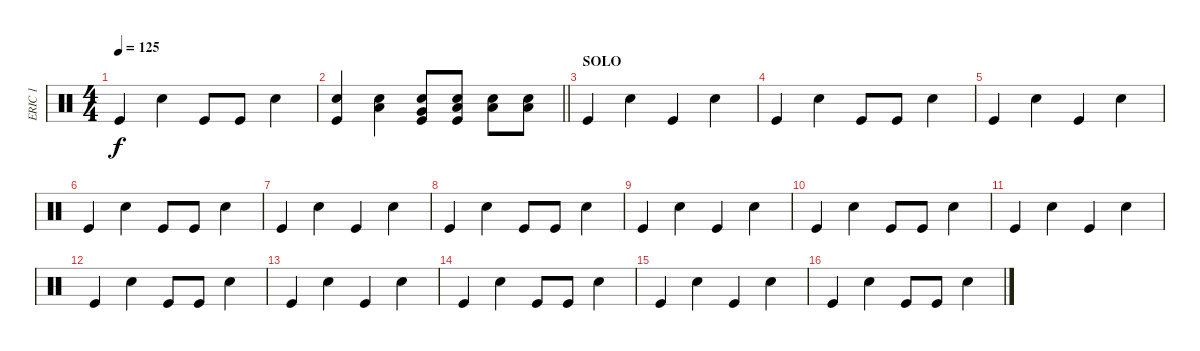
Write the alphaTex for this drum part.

\track ("ERIC 1" "ERIC 1") {instrument percussion}
\staff {score}
\articulation defaults
\ts (4 4)
\tempo 125
\clef neutral
\ks c "Kick (hit)".4{dy f} "Electric Snare (hit)".4 "Kick (hit)".8 "Kick (hit)".8 "Electric Snare (hit)".4
|
\barLineRight lightlight
("Electric Snare (hit)" "Kick (hit)").4 ("Low Floor Tom (hit)" "Electric Snare (hit)").4 ("Electric Snare (hit)" "Very Low Tom (hit)" "Kick (hit)").8 ("Electric Snare (hit)" "Low Tom (hit)" "Kick (hit)").8 ("Electric Snare (hit)" "Low Floor Tom (hit)").8 ("Electric Snare (hit)" "Low Floor Tom (hit)").8 |
\section ("" "SOLO")
"Kick (hit)".4 "Electric Snare (hit)".4 "Kick (hit)".4 "Electric Snare (hit)".4 |
"Kick (hit)".4 "Electric Snare (hit)".4 "Kick (hit)".8 "Kick (hit)".8 "Electric Snare (hit)".4 |
"Kick (hit)".4 "Electric Snare (hit)".4 "Kick (hit)".4 "Electric Snare (hit)".4 |
"Kick (hit)".4 "Electric Snare (hit)".4 "Kick (hit)".8 "Kick (hit)".8 "Electric Snare (hit)".4 |
"Kick (hit)".4 "Electric Snare (hit)".4 "Kick (hit)".4 "Electric Snare (hit)".4 |
"Kick (hit)".4 "Electric Snare (hit)".4 "Kick (hit)".8 "Kick (hit)".8 "Electric Snare (hit)".4 |
"Kick (hit)".4 "Electric Snare (hit)".4 "Kick (hit)".4 "Electric Snare (hit)".4 |
"Kick (hit)".4 "Electric Snare (hit)".4 "Kick (hit)".8 "Kick (hit)".8 "Electric Snare (hit)".4 |
"Kick (hit)".4 "Electric Snare (hit)".4 "Kick (hit)".4 "Electric Snare (hit)".4 |
"Kick (hit)".4 "Electric Snare (hit)".4 "Kick (hit)".8 "Kick (hit)".8 "Electric Snare (hit)".4 |
"Kick (hit)".4 "Electric Snare (hit)".4 "Kick (hit)".4 "Electric Snare (hit)".4 |
"Kick (hit)".4 "Electric Snare (hit)".4 "Kick (hit)".8 "Kick (hit)".8 "Electric Snare (hit)".4 |
"Kick (hit)".4 "Electric Snare (hit)".4 "Kick (hit)".4 "Electric Snare (hit)".4 |
"Kick (hit)".4 "Electric Snare (hit)".4 "Kick (hit)".8 "Kick (hit)".8 "Electric Snare (hit)".4
